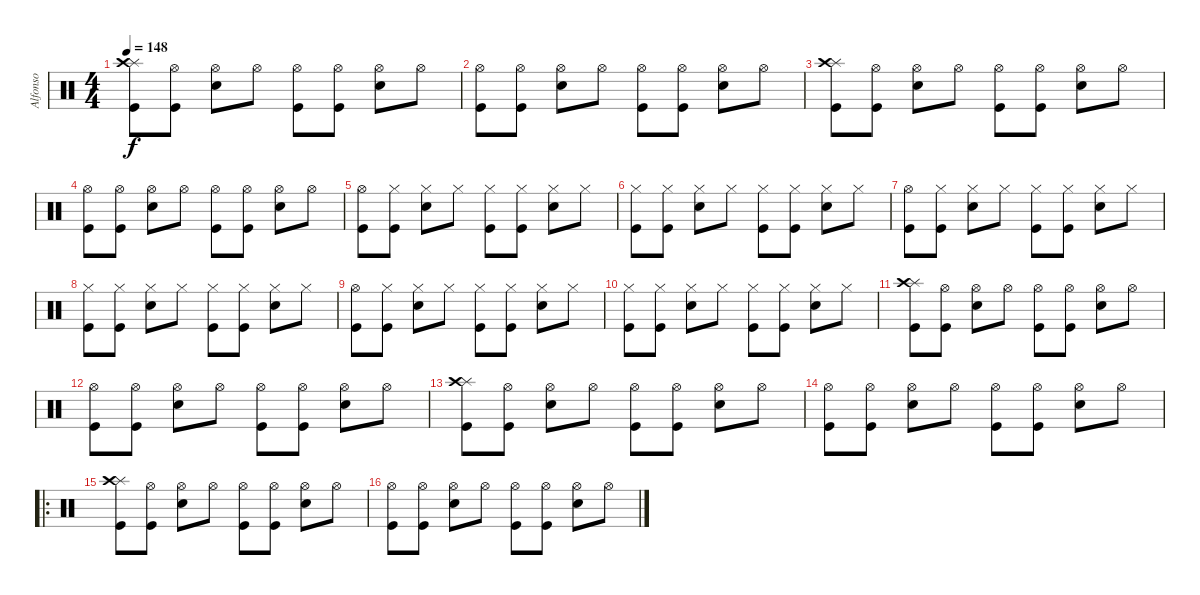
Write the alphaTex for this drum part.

\track ("Alfonso" "Alfonso") {instrument percussion}
\staff {score}
\articulation defaults
\ts (4 4)
\tempo 148
\clef neutral
\ks c
("Kick (hit)" "Splash (hit)" "Crash high (hit)").8{dy f} ("Kick (hit)" "Hi-Hat (open)").8 ("Snare (hit) 2" "Hi-Hat (open)").8 "Hi-Hat (open)".8 ("Kick (hit)" "Hi-Hat (open)").8 ("Kick (hit)" "Hi-Hat (open)").8 ("Snare (hit) 2" "Hi-Hat (open)").8 "Hi-Hat (open)".8 |
("Kick (hit)" "Hi-Hat (open)").8 ("Kick (hit)" "Hi-Hat (open)").8 ("Snare (hit) 2" "Hi-Hat (open)").8 "Hi-Hat (open)".8 ("Kick (hit)" "Hi-Hat (open)").8 ("Kick (hit)" "Hi-Hat (open)").8 ("Snare (hit) 2" "Hi-Hat (open)").8 "Hi-Hat (open)".8 |
("Kick (hit)" "Splash (hit)" "Crash high (hit)").8 ("Kick (hit)" "Hi-Hat (open)").8 ("Snare (hit) 2" "Hi-Hat (open)").8 "Hi-Hat (open)".8 ("Kick (hit)" "Hi-Hat (open)").8 ("Kick (hit)" "Hi-Hat (open)").8 ("Snare (hit) 2" "Hi-Hat (open)").8 "Hi-Hat (open)".8 |
("Kick (hit)" "Hi-Hat (open)").8 ("Kick (hit)" "Hi-Hat (open)").8 ("Snare (hit) 2" "Hi-Hat (open)").8 "Hi-Hat (open)".8 ("Kick (hit)" "Hi-Hat (open)").8 ("Kick (hit)" "Hi-Hat (open)").8 ("Snare (hit) 2" "Hi-Hat (open)").8 "Hi-Hat (open)".8 |
("Kick (hit)" "Hi-Hat (open)").8 ("Kick (hit)" "Hi-Hat (closed)").8 ("Snare (hit) 2" "Hi-Hat (closed)").8 "Hi-Hat (closed)".8 ("Kick (hit)" "Hi-Hat (closed)").8 ("Kick (hit)" "Hi-Hat (closed)").8 ("Snare (hit) 2" "Hi-Hat (closed)").8 "Hi-Hat (closed)".8 |
("Kick (hit)" "Hi-Hat (closed)").8 ("Kick (hit)" "Hi-Hat (closed)").8 ("Snare (hit) 2" "Hi-Hat (closed)").8 "Hi-Hat (closed)".8 ("Kick (hit)" "Hi-Hat (closed)").8 ("Kick (hit)" "Hi-Hat (closed)").8 ("Snare (hit) 2" "Hi-Hat (closed)").8 "Hi-Hat (closed)".8 |
("Kick (hit)" "Hi-Hat (open)").8 ("Kick (hit)" "Hi-Hat (closed)").8 ("Snare (hit) 2" "Hi-Hat (closed)").8 "Hi-Hat (closed)".8 ("Kick (hit)" "Hi-Hat (closed)").8 ("Kick (hit)" "Hi-Hat (closed)").8 ("Snare (hit) 2" "Hi-Hat (closed)").8 "Hi-Hat (closed)".8 |
("Kick (hit)" "Hi-Hat (closed)").8 ("Kick (hit)" "Hi-Hat (closed)").8 ("Snare (hit) 2" "Hi-Hat (closed)").8 "Hi-Hat (closed)".8 ("Kick (hit)" "Hi-Hat (closed)").8 ("Kick (hit)" "Hi-Hat (closed)").8 ("Snare (hit) 2" "Hi-Hat (closed)").8 "Hi-Hat (closed)".8 |
("Kick (hit)" "Hi-Hat (open)").8 ("Kick (hit)" "Hi-Hat (closed)").8 ("Snare (hit) 2" "Hi-Hat (closed)").8 "Hi-Hat (closed)".8 ("Kick (hit)" "Hi-Hat (closed)").8 ("Kick (hit)" "Hi-Hat (closed)").8 ("Snare (hit) 2" "Hi-Hat (closed)").8 "Hi-Hat (closed)".8 |
("Kick (hit)" "Hi-Hat (closed)").8 ("Kick (hit)" "Hi-Hat (closed)").8 ("Snare (hit) 2" "Hi-Hat (closed)").8 "Hi-Hat (closed)".8 ("Kick (hit)" "Hi-Hat (closed)").8 ("Kick (hit)" "Hi-Hat (closed)").8 ("Snare (hit) 2" "Hi-Hat (closed)").8 "Hi-Hat (closed)".8 |
("Kick (hit)" "Splash (hit)" "Crash high (hit)").8 ("Kick (hit)" "Hi-Hat (open)").8 ("Snare (hit) 2" "Hi-Hat (open)").8 "Hi-Hat (open)".8 ("Kick (hit)" "Hi-Hat (open)").8 ("Kick (hit)" "Hi-Hat (open)").8 ("Snare (hit) 2" "Hi-Hat (open)").8 "Hi-Hat (open)".8 |
("Kick (hit)" "Hi-Hat (open)").8 ("Kick (hit)" "Hi-Hat (open)").8 ("Snare (hit) 2" "Hi-Hat (open)").8 "Hi-Hat (open)".8 ("Kick (hit)" "Hi-Hat (open)").8 ("Kick (hit)" "Hi-Hat (open)").8 ("Snare (hit) 2" "Hi-Hat (open)").8 "Hi-Hat (open)".8 |
("Kick (hit)" "Splash (hit)" "Crash high (hit)").8 ("Kick (hit)" "Hi-Hat (open)").8 ("Snare (hit) 2" "Hi-Hat (open)").8 "Hi-Hat (open)".8 ("Kick (hit)" "Hi-Hat (open)").8 ("Kick (hit)" "Hi-Hat (open)").8 ("Snare (hit) 2" "Hi-Hat (open)").8 "Hi-Hat (open)".8 |
("Kick (hit)" "Hi-Hat (open)").8 ("Kick (hit)" "Hi-Hat (open)").8 ("Snare (hit) 2" "Hi-Hat (open)").8 "Hi-Hat (open)".8 ("Kick (hit)" "Hi-Hat (open)").8 ("Kick (hit)" "Hi-Hat (open)").8 ("Snare (hit) 2" "Hi-Hat (open)").8 "Hi-Hat (open)".8 |
\ro
("Kick (hit)" "Splash (hit)" "Crash high (hit)").8 ("Kick (hit)" "Hi-Hat (open)").8 ("Snare (hit) 2" "Hi-Hat (open)").8 "Hi-Hat (open)".8 ("Kick (hit)" "Hi-Hat (open)").8 ("Kick (hit)" "Hi-Hat (open)").8 ("Snare (hit) 2" "Hi-Hat (open)").8 "Hi-Hat (open)".8 |
("Kick (hit)" "Hi-Hat (open)").8 ("Kick (hit)" "Hi-Hat (open)").8 ("Snare (hit) 2" "Hi-Hat (open)").8 "Hi-Hat (open)".8 ("Kick (hit)" "Hi-Hat (open)").8 ("Kick (hit)" "Hi-Hat (open)").8 ("Snare (hit) 2" "Hi-Hat (open)").8 "Hi-Hat (open)".8
